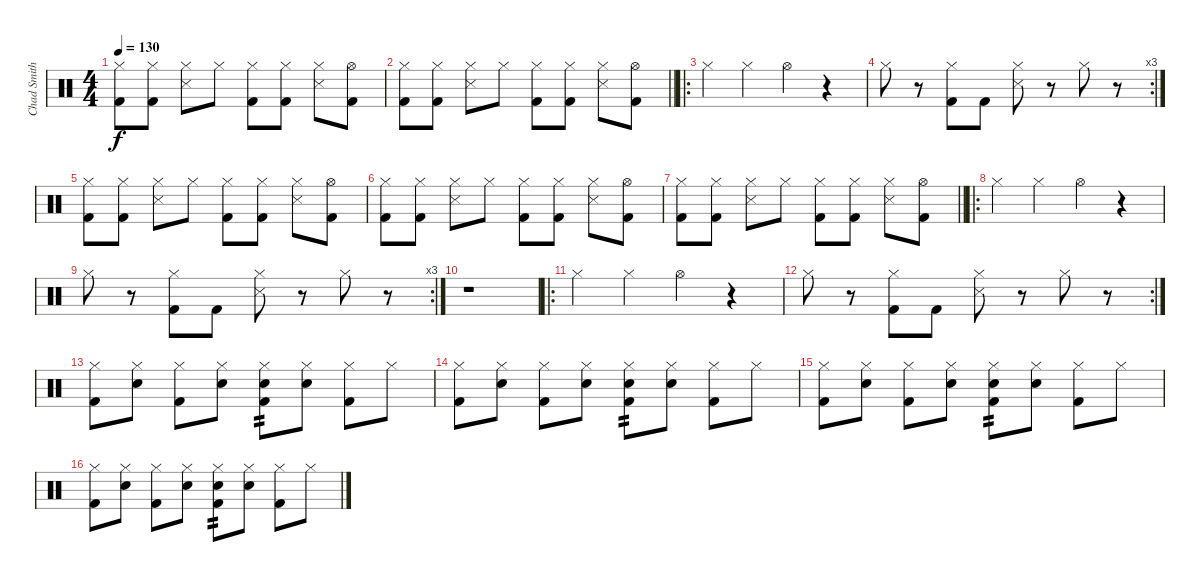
\track ("Chad Smith" "Chad Smith") {instrument percussion}
\staff {score}
\articulation defaults
\ts (4 4)
\tempo 130
\clef neutral
\ks c
("Hi-Hat (closed)" "Kick (hit) 2").8{dy f} ("Hi-Hat (closed)" "Kick (hit) 2").8 ("Hi-Hat (closed)" "Snare (side stick) 3").8 "Hi-Hat (closed)".8 ("Hi-Hat (closed)" "Kick (hit) 2").8 ("Hi-Hat (closed)" "Kick (hit) 2").8 ("Hi-Hat (closed)" "Snare (side stick) 3").8 ("Hi-Hat (open)" "Kick (hit) 2").8 |
\barLineRight lightlight
("Hi-Hat (closed)" "Kick (hit) 2").8 ("Hi-Hat (closed)" "Kick (hit) 2").8 ("Hi-Hat (closed)" "Snare (side stick) 3").8 "Hi-Hat (closed)".8 ("Hi-Hat (closed)" "Kick (hit) 2").8 ("Hi-Hat (closed)" "Kick (hit) 2").8 ("Hi-Hat (closed)" "Snare (side stick) 3").8 ("Hi-Hat (open)" "Kick (hit) 2").8 |
\ro "Hi-Hat (closed)".4 "Hi-Hat (closed)".4 "Hi-Hat (open)".4
r.4 |
\rc 3 "Hi-Hat (closed)".8
r.8 ("Hi-Hat (closed)" "Kick (hit) 2").8 "Kick (hit) 2".8 ("Hi-Hat (closed)" "Snare (side stick) 3").8 r.8 "Hi-Hat (closed)".8 r.8 |
("Hi-Hat (closed)" "Kick (hit) 2").8 ("Hi-Hat (closed)" "Kick (hit) 2").8 ("Hi-Hat (closed)" "Snare (side stick) 3").8 "Hi-Hat (closed)".8 ("Hi-Hat (closed)" "Kick (hit) 2").8 ("Hi-Hat (closed)" "Kick (hit) 2").8 ("Hi-Hat (closed)" "Snare (side stick) 3").8 ("Hi-Hat (open)" "Kick (hit) 2").8 |
("Hi-Hat (closed)" "Kick (hit) 2").8 ("Hi-Hat (closed)" "Kick (hit) 2").8 ("Hi-Hat (closed)" "Snare (side stick) 3").8 "Hi-Hat (closed)".8 ("Hi-Hat (closed)" "Kick (hit) 2").8 ("Hi-Hat (closed)" "Kick (hit) 2").8 ("Hi-Hat (closed)" "Snare (side stick) 3").8 ("Hi-Hat (open)" "Kick (hit) 2").8 |
\barLineRight lightlight
("Hi-Hat (closed)" "Kick (hit) 2").8 ("Hi-Hat (closed)" "Kick (hit) 2").8 ("Hi-Hat (closed)" "Snare (side stick) 3").8 "Hi-Hat (closed)".8 ("Hi-Hat (closed)" "Kick (hit) 2").8 ("Hi-Hat (closed)" "Kick (hit) 2").8 ("Hi-Hat (closed)" "Snare (side stick) 3").8 ("Hi-Hat (open)" "Kick (hit) 2").8 |
\ro "Hi-Hat (closed)".4 "Hi-Hat (closed)".4 "Hi-Hat (open)".4
r.4 |
\rc 3 "Hi-Hat (closed)".8
r.8 ("Hi-Hat (closed)" "Kick (hit) 2").8 "Kick (hit) 2".8 ("Hi-Hat (closed)" "Snare (side stick) 3").8 r.8 "Hi-Hat (closed)".8 r.8 |
r.1 |
\ro "Hi-Hat (closed)".4 "Hi-Hat (closed)".4 "Hi-Hat (open)".4
r.4 |
\rc 2 "Hi-Hat (closed)".8
r.8 ("Hi-Hat (closed)" "Kick (hit) 2").8 "Kick (hit) 2".8 ("Hi-Hat (closed)" "Snare (side stick) 3").8 r.8 "Hi-Hat (closed)".8 r.8 |
("Hi-Hat (closed)" "Kick (hit) 2").8 ("Hi-Hat (closed)" "Electric Snare (hit)").8 ("Hi-Hat (closed)" "Kick (hit) 2").8 ("Hi-Hat (closed)" "Electric Snare (hit)").8 ("Hi-Hat (closed)" "Electric Snare (hit)" "Kick (hit) 2").8{tp 2} ("Hi-Hat (closed)" "Electric Snare (hit)").8 ("Hi-Hat (closed)" "Kick (hit) 2").8 "Hi-Hat (closed)".8 |
("Hi-Hat (closed)" "Kick (hit) 2").8 ("Hi-Hat (closed)" "Electric Snare (hit)").8 ("Hi-Hat (closed)" "Kick (hit) 2").8 ("Hi-Hat (closed)" "Electric Snare (hit)").8 ("Hi-Hat (closed)" "Electric Snare (hit)" "Kick (hit) 2").8{tp 2} ("Hi-Hat (closed)" "Electric Snare (hit)").8 ("Hi-Hat (closed)" "Kick (hit) 2").8 "Hi-Hat (closed)".8 |
("Hi-Hat (closed)" "Kick (hit) 2").8 ("Hi-Hat (closed)" "Electric Snare (hit)").8 ("Hi-Hat (closed)" "Kick (hit) 2").8 ("Hi-Hat (closed)" "Electric Snare (hit)").8 ("Hi-Hat (closed)" "Electric Snare (hit)" "Kick (hit) 2").8{tp 2} ("Hi-Hat (closed)" "Electric Snare (hit)").8 ("Hi-Hat (closed)" "Kick (hit) 2").8 "Hi-Hat (closed)".8 |
("Hi-Hat (closed)" "Kick (hit) 2").8 ("Hi-Hat (closed)" "Electric Snare (hit)").8 ("Hi-Hat (closed)" "Kick (hit) 2").8 ("Hi-Hat (closed)" "Electric Snare (hit)").8 ("Hi-Hat (closed)" "Electric Snare (hit)" "Kick (hit) 2").8{tp 2} ("Hi-Hat (closed)" "Electric Snare (hit)").8 ("Hi-Hat (closed)" "Kick (hit) 2").8 "Hi-Hat (closed)".8
